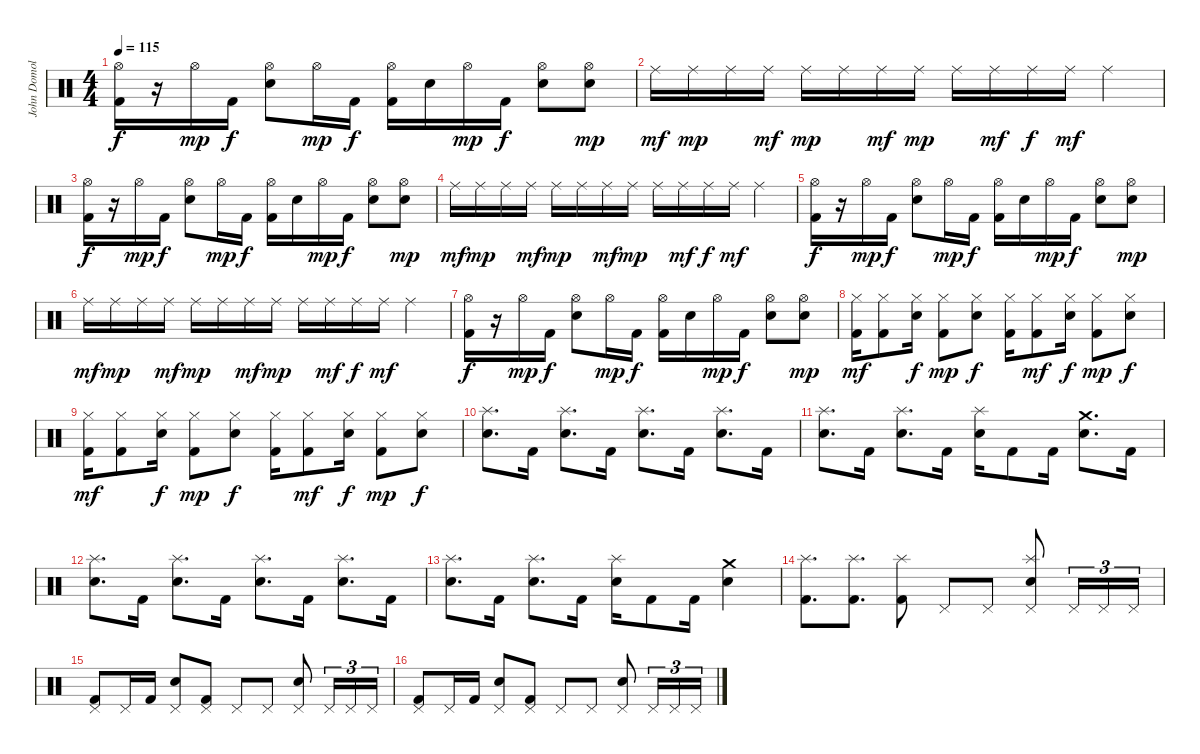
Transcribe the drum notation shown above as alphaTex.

\track ("John Domolyan (Drums)" "John Domol") {instrument percussion}
\staff {score}
\articulation defaults
\ts (4 4)
\tempo 115
\clef neutral
\ks c
("Hi-Hat (open)" "Kick (hit) 2").16{dy f} r.16 "Hi-Hat (open)".16{dy mp} "Kick (hit) 2".16{dy f} ("Hi-Hat (open)" "Electric Snare (hit)").8 "Hi-Hat (open)".16{dy mp} "Kick (hit) 2".16{dy f} ("Hi-Hat (open)" "Kick (hit) 2").16 "Electric Snare (hit)".16 "Hi-Hat (open)".16{dy mp} "Kick (hit) 2".16{dy f} ("Hi-Hat (open)" "Electric Snare (hit)").8 ("Hi-Hat (open)" "Electric Snare (hit)").8{dy mp} |
"Ride (middle)".16{dy mf} "Ride (middle)".16{dy mp} "Ride (middle)".16 "Ride (middle)".16{dy mf} "Ride (middle)".16{dy mp} "Ride (middle)".16 "Ride (middle)".16{dy mf} "Ride (middle)".16{dy mp} "Ride (middle)".16 "Ride (middle)".16{dy mf} "Ride (middle)".16{dy f} "Ride (middle)".16{dy mf} "Ride (middle)".4 |
("Hi-Hat (open)" "Kick (hit) 2").16{dy f} r.16 "Hi-Hat (open)".16{dy mp} "Kick (hit) 2".16{dy f} ("Hi-Hat (open)" "Electric Snare (hit)").8 "Hi-Hat (open)".16{dy mp} "Kick (hit) 2".16{dy f} ("Hi-Hat (open)" "Kick (hit) 2").16 "Electric Snare (hit)".16 "Hi-Hat (open)".16{dy mp} "Kick (hit) 2".16{dy f} ("Hi-Hat (open)" "Electric Snare (hit)").8 ("Hi-Hat (open)" "Electric Snare (hit)").8{dy mp} |
"Ride (middle)".16{dy mf} "Ride (middle)".16{dy mp} "Ride (middle)".16 "Ride (middle)".16{dy mf} "Ride (middle)".16{dy mp} "Ride (middle)".16 "Ride (middle)".16{dy mf} "Ride (middle)".16{dy mp} "Ride (middle)".16 "Ride (middle)".16{dy mf} "Ride (middle)".16{dy f} "Ride (middle)".16{dy mf} "Ride (middle)".4 |
("Hi-Hat (open)" "Kick (hit) 2").16{dy f} r.16 "Hi-Hat (open)".16{dy mp} "Kick (hit) 2".16{dy f} ("Hi-Hat (open)" "Electric Snare (hit)").8 "Hi-Hat (open)".16{dy mp} "Kick (hit) 2".16{dy f} ("Hi-Hat (open)" "Kick (hit) 2").16 "Electric Snare (hit)".16 "Hi-Hat (open)".16{dy mp} "Kick (hit) 2".16{dy f} ("Hi-Hat (open)" "Electric Snare (hit)").8 ("Hi-Hat (open)" "Electric Snare (hit)").8{dy mp} |
"Ride (middle)".16{dy mf} "Ride (middle)".16{dy mp} "Ride (middle)".16 "Ride (middle)".16{dy mf} "Ride (middle)".16{dy mp} "Ride (middle)".16 "Ride (middle)".16{dy mf} "Ride (middle)".16{dy mp} "Ride (middle)".16 "Ride (middle)".16{dy mf} "Ride (middle)".16{dy f} "Ride (middle)".16{dy mf} "Ride (middle)".4 |
("Hi-Hat (open)" "Kick (hit) 2").16{dy f} r.16 "Hi-Hat (open)".16{dy mp} "Kick (hit) 2".16{dy f} ("Hi-Hat (open)" "Electric Snare (hit)").8 "Hi-Hat (open)".16{dy mp} "Kick (hit) 2".16{dy f} ("Hi-Hat (open)" "Kick (hit) 2").16 "Electric Snare (hit)".16 "Hi-Hat (open)".16{dy mp} "Kick (hit) 2".16{dy f} ("Hi-Hat (open)" "Electric Snare (hit)").8 ("Hi-Hat (open)" "Electric Snare (hit)").8{dy mp} |
("Hi-Hat (closed)" "Kick (hit) 2").16{dy mf} ("Hi-Hat (closed)" "Kick (hit) 2").8 ("Hi-Hat (closed)" "Electric Snare (hit)").16{dy f} ("Hi-Hat (closed)" "Kick (hit) 2").8{dy mp} ("Hi-Hat (closed)" "Electric Snare (hit)").8{dy f} ("Hi-Hat (closed)" "Kick (hit) 2").16 ("Hi-Hat (closed)" "Kick (hit) 2").8{dy mf} ("Hi-Hat (closed)" "Electric Snare (hit)").16{dy f} ("Hi-Hat (closed)" "Kick (hit) 2").8{dy mp} ("Hi-Hat (closed)" "Electric Snare (hit)").8{dy f} |
("Hi-Hat (closed)" "Kick (hit) 2").16{dy mf} ("Hi-Hat (closed)" "Kick (hit) 2").8 ("Hi-Hat (closed)" "Electric Snare (hit)").16{dy f} ("Hi-Hat (closed)" "Kick (hit) 2").8{dy mp} ("Hi-Hat (closed)" "Electric Snare (hit)").8{dy f} ("Hi-Hat (closed)" "Kick (hit) 2").16 ("Hi-Hat (closed)" "Kick (hit) 2").8{dy mf} ("Hi-Hat (closed)" "Electric Snare (hit)").16{dy f} ("Hi-Hat (closed)" "Kick (hit) 2").8{dy mp} ("Hi-Hat (closed)" "Electric Snare (hit)").8{dy f} |
("Splash (hit)" "Electric Snare (hit)").8{d} "Kick (hit) 2".16 ("Splash (hit)" "Electric Snare (hit)").8{d} "Kick (hit) 2".16 ("Splash (hit)" "Electric Snare (hit)").8{d} "Kick (hit) 2".16 ("Splash (hit)" "Electric Snare (hit)").8{d} "Kick (hit) 2".16 |
("Splash (hit)" "Electric Snare (hit)").8{d} "Kick (hit) 2".16 ("Splash (hit)" "Electric Snare (hit)").8{d} "Kick (hit) 2".16 ("Splash (hit)" "Electric Snare (hit)").16 "Kick (hit) 2".8 "Kick (hit) 2".16 ("Crash medium (hit)" "Electric Snare (hit)").8{d} "Kick (hit) 2".16 |
("Splash (hit)" "Electric Snare (hit)").8{d} "Kick (hit) 2".16 ("Splash (hit)" "Electric Snare (hit)").8{d} "Kick (hit) 2".16 ("Splash (hit)" "Electric Snare (hit)").8{d} "Kick (hit) 2".16 ("Splash (hit)" "Electric Snare (hit)").8{d} "Kick (hit) 2".16 |
("Splash (hit)" "Electric Snare (hit)").8{d} "Kick (hit) 2".16 ("Splash (hit)" "Electric Snare (hit)").8{d} "Kick (hit) 2".16 ("Splash (hit)" "Electric Snare (hit)").16 "Kick (hit) 2".8 "Kick (hit) 2".16 ("Crash medium (hit)" "Electric Snare (hit)").4 |
("Splash (hit)" "Kick (hit) 2").8{d} ("Splash (hit)" "Kick (hit) 2").8{d} ("Splash (hit)" "Kick (hit) 2").8 "Pedal Hi-Hat (hit)".8 "Pedal Hi-Hat (hit)".8 ("Pedal Hi-Hat (hit)" "Splash (hit)" "Electric Snare (hit)").8 "Pedal Hi-Hat (hit)".16{tu (3 2)} "Pedal Hi-Hat (hit)".16{tu (3 2)} "Pedal Hi-Hat (hit)".16{tu (3 2)} |
("Pedal Hi-Hat (hit)" "Kick (hit) 2").8 "Pedal Hi-Hat (hit)".16 "Kick (hit) 2".16 ("Pedal Hi-Hat (hit)" "Electric Snare (hit)").8 ("Pedal Hi-Hat (hit)" "Kick (hit) 2").8 "Pedal Hi-Hat (hit)".8 "Pedal Hi-Hat (hit)".8 ("Pedal Hi-Hat (hit)" "Electric Snare (hit)").8 "Pedal Hi-Hat (hit)".16{tu (3 2)} "Pedal Hi-Hat (hit)".16{tu (3 2)} "Pedal Hi-Hat (hit)".16{tu (3 2)} |
("Pedal Hi-Hat (hit)" "Kick (hit) 2").8 "Pedal Hi-Hat (hit)".16 "Kick (hit) 2".16 ("Pedal Hi-Hat (hit)" "Electric Snare (hit)").8 ("Pedal Hi-Hat (hit)" "Kick (hit) 2").8 "Pedal Hi-Hat (hit)".8 "Pedal Hi-Hat (hit)".8 ("Pedal Hi-Hat (hit)" "Electric Snare (hit)").8 "Pedal Hi-Hat (hit)".16{tu (3 2)} "Pedal Hi-Hat (hit)".16{tu (3 2)} "Pedal Hi-Hat (hit)".16{tu (3 2)}
